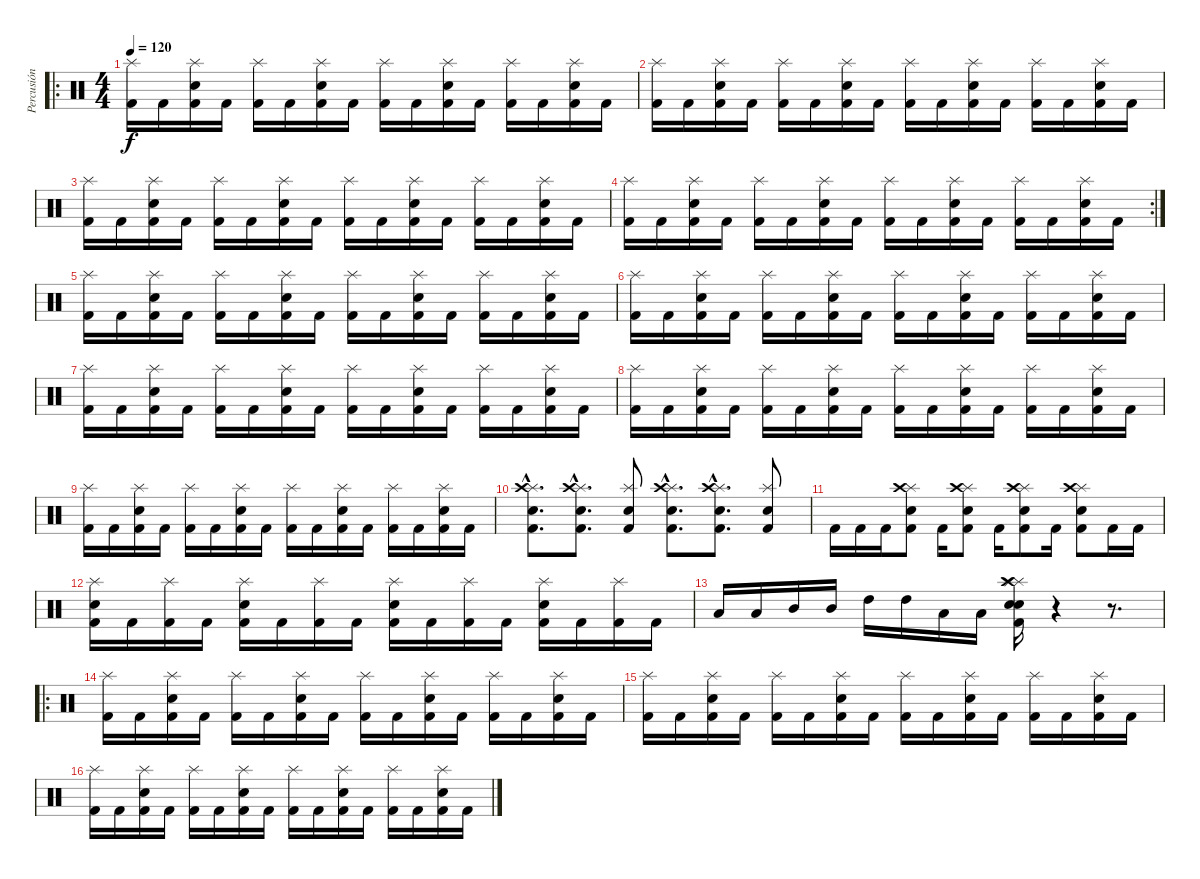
\track ("Percusión" "Percusión") {instrument percussion}
\staff {score}
\articulation defaults
\ro
\ts (4 4)
\tempo 120
\clef neutral
\ks c
("Kick (hit) 2" "Splash (hit)").16{dy f} "Kick (hit) 2".16 ("Kick (hit) 2" "Splash (hit)" "Electric Snare (hit)").16 "Kick (hit) 2".16 ("Kick (hit) 2" "Splash (hit)").16 "Kick (hit) 2".16 ("Kick (hit) 2" "Splash (hit)" "Electric Snare (hit)").16 "Kick (hit) 2".16 ("Kick (hit) 2" "Splash (hit)").16 "Kick (hit) 2".16 ("Kick (hit) 2" "Splash (hit)" "Electric Snare (hit)").16 "Kick (hit) 2".16 ("Kick (hit) 2" "Splash (hit)").16 "Kick (hit) 2".16 ("Kick (hit) 2" "Splash (hit)" "Electric Snare (hit)").16 "Kick (hit) 2".16 |
("Kick (hit) 2" "Splash (hit)").16 "Kick (hit) 2".16 ("Kick (hit) 2" "Splash (hit)" "Electric Snare (hit)").16 "Kick (hit) 2".16 ("Kick (hit) 2" "Splash (hit)").16 "Kick (hit) 2".16 ("Kick (hit) 2" "Splash (hit)" "Electric Snare (hit)").16 "Kick (hit) 2".16 ("Kick (hit) 2" "Splash (hit)").16 "Kick (hit) 2".16 ("Kick (hit) 2" "Splash (hit)" "Electric Snare (hit)").16 "Kick (hit) 2".16 ("Kick (hit) 2" "Splash (hit)").16 "Kick (hit) 2".16 ("Kick (hit) 2" "Splash (hit)" "Electric Snare (hit)").16 "Kick (hit) 2".16 |
("Kick (hit) 2" "Splash (hit)").16 "Kick (hit) 2".16 ("Kick (hit) 2" "Splash (hit)" "Electric Snare (hit)").16 "Kick (hit) 2".16 ("Kick (hit) 2" "Splash (hit)").16 "Kick (hit) 2".16 ("Kick (hit) 2" "Splash (hit)" "Electric Snare (hit)").16 "Kick (hit) 2".16 ("Kick (hit) 2" "Splash (hit)").16 "Kick (hit) 2".16 ("Kick (hit) 2" "Splash (hit)" "Electric Snare (hit)").16 "Kick (hit) 2".16 ("Kick (hit) 2" "Splash (hit)").16 "Kick (hit) 2".16 ("Kick (hit) 2" "Splash (hit)" "Electric Snare (hit)").16 "Kick (hit) 2".16 |
\rc 2
("Kick (hit) 2" "Splash (hit)").16 "Kick (hit) 2".16 ("Kick (hit) 2" "Splash (hit)" "Electric Snare (hit)").16 "Kick (hit) 2".16 ("Kick (hit) 2" "Splash (hit)").16 "Kick (hit) 2".16 ("Kick (hit) 2" "Splash (hit)" "Electric Snare (hit)").16 "Kick (hit) 2".16 ("Kick (hit) 2" "Splash (hit)").16 "Kick (hit) 2".16 ("Kick (hit) 2" "Splash (hit)" "Electric Snare (hit)").16 "Kick (hit) 2".16 ("Kick (hit) 2" "Splash (hit)").16 "Kick (hit) 2".16 ("Kick (hit) 2" "Splash (hit)" "Electric Snare (hit)").16 "Kick (hit) 2".16 |
("Kick (hit) 2" "Splash (hit)").16 "Kick (hit) 2".16 ("Kick (hit) 2" "Splash (hit)" "Electric Snare (hit)").16 "Kick (hit) 2".16 ("Kick (hit) 2" "Splash (hit)").16 "Kick (hit) 2".16 ("Kick (hit) 2" "Splash (hit)" "Electric Snare (hit)").16 "Kick (hit) 2".16 ("Kick (hit) 2" "Splash (hit)").16 "Kick (hit) 2".16 ("Kick (hit) 2" "Splash (hit)" "Electric Snare (hit)").16 "Kick (hit) 2".16 ("Kick (hit) 2" "Splash (hit)").16 "Kick (hit) 2".16 ("Kick (hit) 2" "Splash (hit)" "Electric Snare (hit)").16 "Kick (hit) 2".16 |
("Kick (hit) 2" "Splash (hit)").16 "Kick (hit) 2".16 ("Kick (hit) 2" "Splash (hit)" "Electric Snare (hit)").16 "Kick (hit) 2".16 ("Kick (hit) 2" "Splash (hit)").16 "Kick (hit) 2".16 ("Kick (hit) 2" "Splash (hit)" "Electric Snare (hit)").16 "Kick (hit) 2".16 ("Kick (hit) 2" "Splash (hit)").16 "Kick (hit) 2".16 ("Kick (hit) 2" "Splash (hit)" "Electric Snare (hit)").16 "Kick (hit) 2".16 ("Kick (hit) 2" "Splash (hit)").16 "Kick (hit) 2".16 ("Kick (hit) 2" "Splash (hit)" "Electric Snare (hit)").16 "Kick (hit) 2".16 |
("Kick (hit) 2" "Splash (hit)").16 "Kick (hit) 2".16 ("Kick (hit) 2" "Splash (hit)" "Electric Snare (hit)").16 "Kick (hit) 2".16 ("Kick (hit) 2" "Splash (hit)").16 "Kick (hit) 2".16 ("Kick (hit) 2" "Splash (hit)" "Electric Snare (hit)").16 "Kick (hit) 2".16 ("Kick (hit) 2" "Splash (hit)").16 "Kick (hit) 2".16 ("Kick (hit) 2" "Splash (hit)" "Electric Snare (hit)").16 "Kick (hit) 2".16 ("Kick (hit) 2" "Splash (hit)").16 "Kick (hit) 2".16 ("Kick (hit) 2" "Splash (hit)" "Electric Snare (hit)").16 "Kick (hit) 2".16 |
("Kick (hit) 2" "Splash (hit)").16 "Kick (hit) 2".16 ("Kick (hit) 2" "Splash (hit)" "Electric Snare (hit)").16 "Kick (hit) 2".16 ("Kick (hit) 2" "Splash (hit)").16 "Kick (hit) 2".16 ("Kick (hit) 2" "Splash (hit)" "Electric Snare (hit)").16 "Kick (hit) 2".16 ("Kick (hit) 2" "Splash (hit)").16 "Kick (hit) 2".16 ("Kick (hit) 2" "Splash (hit)" "Electric Snare (hit)").16 "Kick (hit) 2".16 ("Kick (hit) 2" "Splash (hit)").16 "Kick (hit) 2".16 ("Kick (hit) 2" "Splash (hit)" "Electric Snare (hit)").16 "Kick (hit) 2".16 |
("Kick (hit) 2" "Splash (hit)").16 "Kick (hit) 2".16 ("Kick (hit) 2" "Splash (hit)" "Electric Snare (hit)").16 "Kick (hit) 2".16 ("Kick (hit) 2" "Splash (hit)").16 "Kick (hit) 2".16 ("Kick (hit) 2" "Splash (hit)" "Electric Snare (hit)").16 "Kick (hit) 2".16 ("Kick (hit) 2" "Splash (hit)").16 "Kick (hit) 2".16 ("Kick (hit) 2" "Splash (hit)" "Electric Snare (hit)").16 "Kick (hit) 2".16 ("Kick (hit) 2" "Splash (hit)").16 "Kick (hit) 2".16 ("Kick (hit) 2" "Splash (hit)" "Electric Snare (hit)").16 "Kick (hit) 2".16 |
("Electric Snare (hit)"{hac} "Splash (hit)"{hac} "Crash high (hit)"{hac} "Kick (hit) 2"{hac}).8{d} ("Electric Snare (hit)"{hac} "Splash (hit)"{hac} "Kick (hit) 2"{hac} "Crash high (hit)"{hac}).8{d} ("Electric Snare (hit)" "Splash (hit)" "Kick (hit) 2").8 ("Electric Snare (hit)"{hac} "Splash (hit)"{hac} "Kick (hit) 2"{hac} "Crash high (hit)"{hac}).8{d} ("Electric Snare (hit)"{hac} "Splash (hit)"{hac} "Kick (hit) 2"{hac} "Crash high (hit)"{hac}).8{d} ("Electric Snare (hit)" "Splash (hit)" "Kick (hit) 2").8 |
"Kick (hit) 2".16 "Kick (hit) 2".16 "Kick (hit) 2".16 ("Kick (hit) 2" "Splash (hit)" "Crash high (hit)" "Electric Snare (hit)").8 "Kick (hit) 2".16 ("Kick (hit) 2" "Splash (hit)" "Crash high (hit)" "Electric Snare (hit)").8 "Kick (hit) 2".16 ("Kick (hit) 2" "Splash (hit)" "Crash high (hit)" "Electric Snare (hit)").8 "Kick (hit) 2".16 ("Kick (hit) 2" "Splash (hit)" "Crash high (hit)" "Electric Snare (hit)").8 "Kick (hit) 2".16 "Kick (hit) 2".16 |
("Kick (hit) 2" "Splash (hit)" "Electric Snare (hit)").16 "Kick (hit) 2".16 ("Kick (hit) 2" "Splash (hit)").16 "Kick (hit) 2".16 ("Kick (hit) 2" "Splash (hit)" "Electric Snare (hit)").16 "Kick (hit) 2".16 ("Kick (hit) 2" "Splash (hit)").16 "Kick (hit) 2".16 ("Kick (hit) 2" "Splash (hit)" "Electric Snare (hit)").16 "Kick (hit) 2".16 ("Kick (hit) 2" "Splash (hit)").16 "Kick (hit) 2".16 ("Kick (hit) 2" "Splash (hit)" "Electric Snare (hit)").16 "Kick (hit) 2".16 ("Kick (hit) 2" "Splash (hit)").16 "Kick (hit) 2".16 |
"Low Tom (hit)".16 "Low Tom (hit)".16 "Mid Tom (hit)".16 "Mid Tom (hit)".16 "High Tom (hit)".16 "High Tom (hit)".16 "Low Floor Tom (hit)".16 "Low Floor Tom (hit)".16 ("Kick (hit) 2" "Splash (hit)" "Electric Snare (hit)" "Electric Snare (hit)" "Crash high (hit)" "Splash (hit)").16 r.4 r.8{d} |
\ro
("Kick (hit) 2" "Splash (hit)").16 "Kick (hit) 2".16 ("Kick (hit) 2" "Splash (hit)" "Electric Snare (hit)").16 "Kick (hit) 2".16 ("Kick (hit) 2" "Splash (hit)").16 "Kick (hit) 2".16 ("Kick (hit) 2" "Splash (hit)" "Electric Snare (hit)").16 "Kick (hit) 2".16 ("Kick (hit) 2" "Splash (hit)").16 "Kick (hit) 2".16 ("Kick (hit) 2" "Splash (hit)" "Electric Snare (hit)").16 "Kick (hit) 2".16 ("Kick (hit) 2" "Splash (hit)").16 "Kick (hit) 2".16 ("Kick (hit) 2" "Splash (hit)" "Electric Snare (hit)").16 "Kick (hit) 2".16 |
("Kick (hit) 2" "Splash (hit)").16 "Kick (hit) 2".16 ("Kick (hit) 2" "Splash (hit)" "Electric Snare (hit)").16 "Kick (hit) 2".16 ("Kick (hit) 2" "Splash (hit)").16 "Kick (hit) 2".16 ("Kick (hit) 2" "Splash (hit)" "Electric Snare (hit)").16 "Kick (hit) 2".16 ("Kick (hit) 2" "Splash (hit)").16 "Kick (hit) 2".16 ("Kick (hit) 2" "Splash (hit)" "Electric Snare (hit)").16 "Kick (hit) 2".16 ("Kick (hit) 2" "Splash (hit)").16 "Kick (hit) 2".16 ("Kick (hit) 2" "Splash (hit)" "Electric Snare (hit)").16 "Kick (hit) 2".16 |
("Kick (hit) 2" "Splash (hit)").16 "Kick (hit) 2".16 ("Kick (hit) 2" "Splash (hit)" "Electric Snare (hit)").16 "Kick (hit) 2".16 ("Kick (hit) 2" "Splash (hit)").16 "Kick (hit) 2".16 ("Kick (hit) 2" "Splash (hit)" "Electric Snare (hit)").16 "Kick (hit) 2".16 ("Kick (hit) 2" "Splash (hit)").16 "Kick (hit) 2".16 ("Kick (hit) 2" "Splash (hit)" "Electric Snare (hit)").16 "Kick (hit) 2".16 ("Kick (hit) 2" "Splash (hit)").16 "Kick (hit) 2".16 ("Kick (hit) 2" "Splash (hit)" "Electric Snare (hit)").16 "Kick (hit) 2".16
